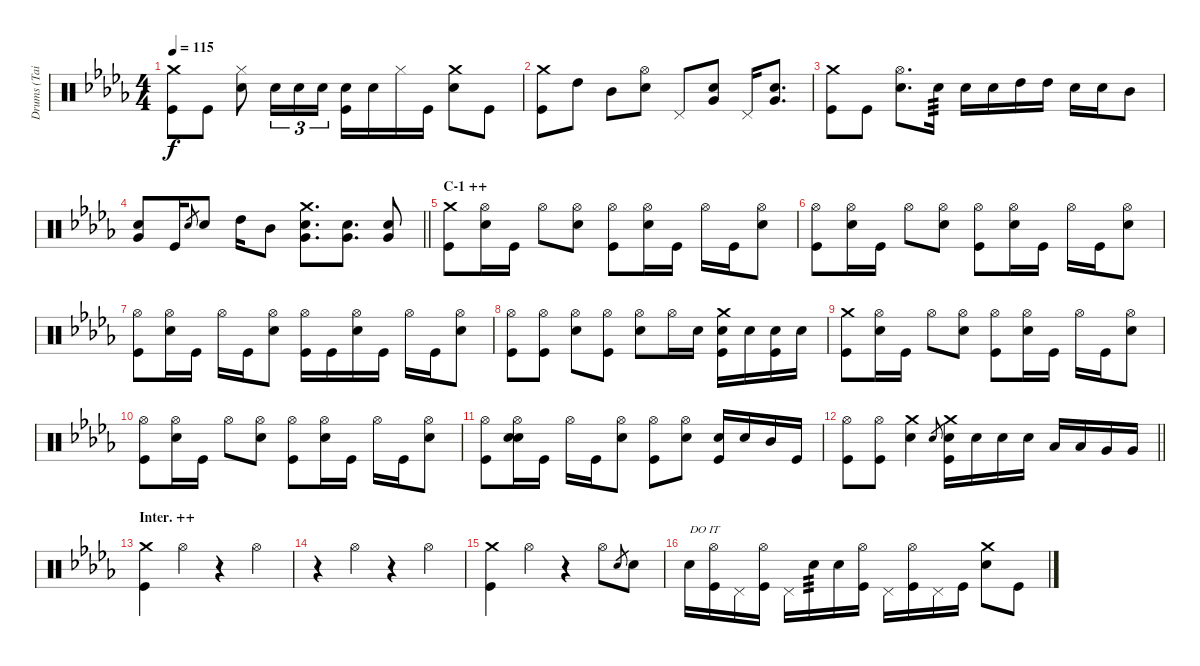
\track ("Drums (Tainaka Ritsu)" "Drums (Tai") {instrument percussion}
\staff {score}
\articulation defaults
\ts (4 4)
\tempo 115
\clef neutral
\ks db
("Crash medium (hit)" "Kick (hit)").8{dy f} "Kick (hit)".8 ("Hi-Hat (closed)" "Snare (hit) 2").8 "Snare (hit) 2".16{tu (3 2)} "Snare (hit) 2".16{tu (3 2)} "Snare (hit) 2".16{tu (3 2)} ("Snare (hit) 2" "Kick (hit)").16 "Snare (hit) 2".16 "Hi-Hat (closed)".16 "Kick (hit)".16 ("Crash medium (hit)" "Snare (hit) 2").8 "Kick (hit)".8 |
("Crash medium (hit)" "Kick (hit)").8 "High Tom (hit)".8 "Mid Tom (hit)".8 ("Hi-Hat (open)" "Snare (hit) 2").8 "Pedal Hi-Hat (hit)".8 ("Snare (hit) 2" "Very Low Tom (hit)").8 "Pedal Hi-Hat (hit)".16 ("Snare (hit) 2" "Very Low Tom (hit)").8{d} |
("Crash medium (hit)" "Kick (hit)").8 "Kick (hit)".8 ("Hi-Hat (open)" "Snare (hit) 2").8{d} "Snare (hit) 2".16{tp 3} "Snare (hit) 2".16 "Snare (hit) 2".16 "High Tom (hit)".16 "High Tom (hit)".16 "Snare (hit) 2".16 "Snare (hit) 2".16 "Mid Tom (hit)".8 |
\barLineRight lightlight
("Snare (hit) 2" "Very Low Tom (hit)").8 "Kick (hit)".16 "Snare (hit) 2".8{gr} "Snare (hit) 2".8 "High Tom (hit)".16 "Mid Tom (hit)".8 ("Crash medium (hit)" "Snare (hit) 2" "Very Low Tom (hit)").8{d} ("Snare (hit) 2" "Very Low Tom (hit)").8{d} ("Snare (hit) 2" "Very Low Tom (hit)").8 |
\section ("" "C-1 ++")
("Crash medium (hit)" "Kick (hit)").8 ("Hi-Hat (open)" "Snare (hit) 2").16 "Kick (hit)".16 "Hi-Hat (open)".8 ("Hi-Hat (open)" "Snare (hit) 2").8 ("Hi-Hat (open)" "Kick (hit)").8 ("Hi-Hat (open)" "Snare (hit) 2").16 "Kick (hit)".16 "Hi-Hat (open)".16 "Kick (hit)".16 ("Hi-Hat (open)" "Snare (hit) 2").8 |
("Hi-Hat (open)" "Kick (hit)").8 ("Hi-Hat (open)" "Snare (hit) 2").16 "Kick (hit)".16 "Hi-Hat (open)".8 ("Hi-Hat (open)" "Snare (hit) 2").8 ("Hi-Hat (open)" "Kick (hit)").8 ("Hi-Hat (open)" "Snare (hit) 2").16 "Kick (hit)".16 "Hi-Hat (open)".16 "Kick (hit)".16 ("Hi-Hat (open)" "Snare (hit) 2").8 |
("Hi-Hat (open)" "Kick (hit)").8 ("Hi-Hat (open)" "Snare (hit) 2").16 "Kick (hit)".16 "Hi-Hat (open)".16 "Kick (hit)".16 ("Hi-Hat (open)" "Snare (hit) 2").8 ("Hi-Hat (open)" "Kick (hit)").16 "Kick (hit)".16 ("Hi-Hat (open)" "Snare (hit) 2").16 "Kick (hit)".16 "Hi-Hat (open)".16 "Kick (hit)".16 ("Hi-Hat (open)" "Snare (hit) 2").8 |
("Hi-Hat (open)" "Kick (hit)").8 ("Hi-Hat (open)" "Kick (hit)").8 ("Hi-Hat (open)" "Snare (hit) 2").8 ("Hi-Hat (open)" "Kick (hit)").8 ("Hi-Hat (open)" "Snare (hit) 2").8 "Hi-Hat (open)".16 "Snare (hit) 2".16 ("Crash medium (hit)" "Snare (hit) 2" "Kick (hit)").16 "Snare (hit) 2".16 ("Snare (hit) 2" "Kick (hit)").16 "Snare (hit) 2".16 |
("Crash medium (hit)" "Kick (hit)").8 ("Hi-Hat (open)" "Snare (hit) 2").16 "Kick (hit)".16 "Hi-Hat (open)".8 ("Hi-Hat (open)" "Snare (hit) 2").8 ("Hi-Hat (open)" "Kick (hit)").8 ("Hi-Hat (open)" "Snare (hit) 2").16 "Kick (hit)".16 "Hi-Hat (open)".16 "Kick (hit)".16 ("Hi-Hat (open)" "Snare (hit) 2").8 |
("Hi-Hat (open)" "Kick (hit)").8 ("Hi-Hat (open)" "Snare (hit) 2").16 "Kick (hit)".16 "Hi-Hat (open)".8 ("Hi-Hat (open)" "Snare (hit) 2").8 ("Hi-Hat (open)" "Kick (hit)").8 ("Hi-Hat (open)" "Snare (hit) 2").16 "Kick (hit)".16 "Hi-Hat (open)".16 "Kick (hit)".16 ("Hi-Hat (open)" "Snare (hit) 2").8 |
("Hi-Hat (open)" "Kick (hit)").8 ("Hi-Hat (open)" "Snare (hit) 2" "Snare (hit) 2").16 "Kick (hit)".16 "Hi-Hat (open)".16 "Kick (hit)".16 ("Hi-Hat (open)" "Snare (hit) 2").8 ("Hi-Hat (open)" "Kick (hit)").8 ("Hi-Hat (open)" "Snare (hit) 2").8 ("Snare (hit) 2" "Kick (hit)").16 "Snare (hit) 2".16 "Mid Tom (hit)".16 "Kick (hit)".16 |
\barLineRight lightlight
("Hi-Hat (open)" "Kick (hit)").8 ("Hi-Hat (open)" "Kick (hit)").8 ("Crash medium (hit)" "Snare (hit) 2").4 "Snare (hit) 2".8{gr} ("Crash medium (hit)" "Snare (hit) 2" "Kick (hit)").16 "Snare (hit) 2".16 "Snare (hit) 2".16 "Snare (hit) 2".16 "Low Tom (hit)".16 "Low Tom (hit)".16 "Very Low Tom (hit)".16 "Very Low Tom (hit)".16 |
\section ("" "Inter. ++")
("Crash medium (hit)" "Kick (hit)").4 "Hi-Hat (open)".4 r.4 "Hi-Hat (open)".4 |
r.4 "Hi-Hat (open)".4 r.4 "Hi-Hat (open)".4 |
("Crash medium (hit)" "Kick (hit)").4 "Hi-Hat (open)".4 r.4 "Hi-Hat (open)".8 "Snare (hit) 2".8{gr} "Snare (hit) 2".8 |
"Snare (hit) 2".16{txt "DO IT"} ("Hi-Hat (open)" "Kick (hit)").16 "Pedal Hi-Hat (hit)".16 ("Hi-Hat (open)" "Kick (hit)").16 "Pedal Hi-Hat (hit)".16 "Snare (hit) 2".16{tp 3} "Snare (hit) 2".16 ("Hi-Hat (open)" "Kick (hit)").16 "Pedal Hi-Hat (hit)".16 ("Hi-Hat (open)" "Kick (hit)").16 "Pedal Hi-Hat (hit)".16 "Kick (hit)".16 ("Crash medium (hit)" "Snare (hit) 2").8 "Kick (hit)".8
